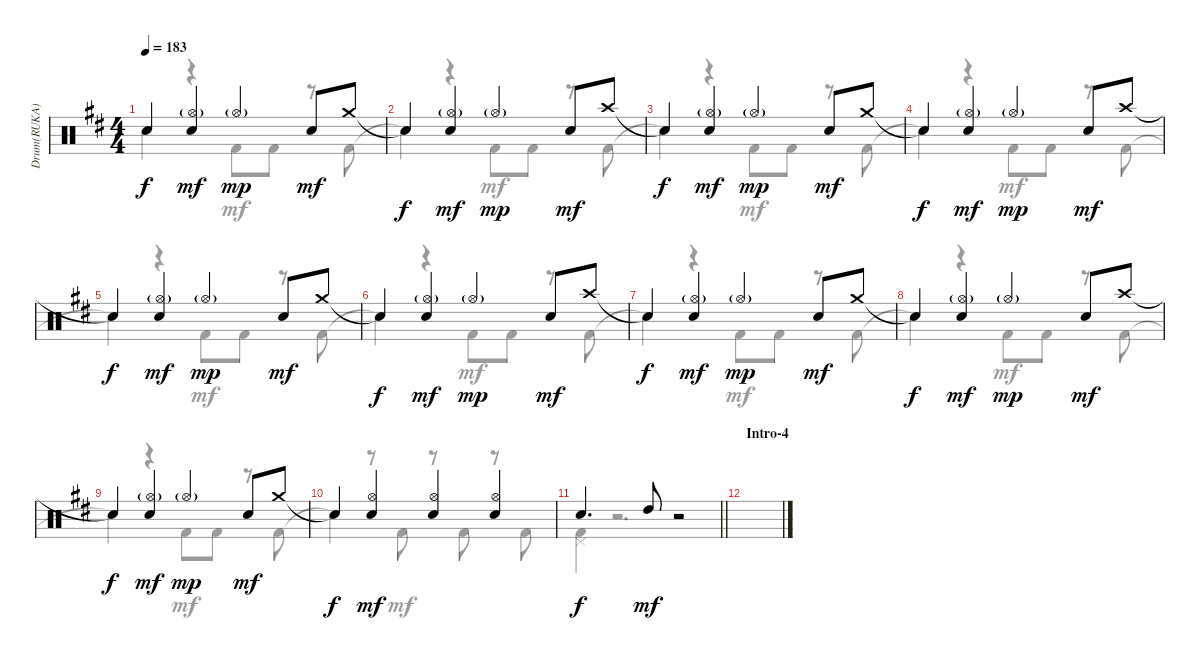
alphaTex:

\track ("Drum(RUKA)" "Drum(RUKA)") {instrument percussion}
\staff {score}
\articulation defaults
\voice
\ts (4 4)
\tempo 183
\clef neutral
\ks d "Snare (hit)"{t}.4{dy f}
("Hi-Hat (open)"{g} "Snare (hit) 2").4{dy mf} "Hi-Hat (open)"{g}.4{dy mp} "Snare (hit) 2".8{dy mf} "Crash medium (hit)".8 |
"Snare (hit)"{t}.4{dy f} ("Hi-Hat (open)"{g} "Snare (hit) 2").4{dy mf} "Hi-Hat (open)"{g}.4{dy mp} "Snare (hit) 2".8{dy mf} "Crash high (hit)".8 |
"Snare (hit)"{t}.4{dy f} ("Hi-Hat (open)"{g} "Snare (hit) 2").4{dy mf} "Hi-Hat (open)"{g}.4{dy mp} "Snare (hit) 2".8{dy mf} "Crash medium (hit)".8 |
"Snare (hit)"{t}.4{dy f} ("Hi-Hat (open)"{g} "Snare (hit) 2").4{dy mf} "Hi-Hat (open)"{g}.4{dy mp} "Snare (hit) 2".8{dy mf} "Crash high (hit)".8 |
"Snare (hit)"{t}.4{dy f} ("Hi-Hat (open)"{g} "Snare (hit) 2").4{dy mf} "Hi-Hat (open)"{g}.4{dy mp} "Snare (hit) 2".8{dy mf} "Crash medium (hit)".8 |
"Snare (hit)"{t}.4{dy f} ("Hi-Hat (open)"{g} "Snare (hit) 2").4{dy mf} "Hi-Hat (open)"{g}.4{dy mp} "Snare (hit) 2".8{dy mf} "Crash high (hit)".8 |
"Snare (hit)"{t}.4{dy f} ("Hi-Hat (open)"{g} "Snare (hit) 2").4{dy mf} "Hi-Hat (open)"{g}.4{dy mp} "Snare (hit) 2".8{dy mf} "Crash medium (hit)".8 |
"Snare (hit)"{t}.4{dy f} ("Hi-Hat (open)"{g} "Snare (hit) 2").4{dy mf} "Hi-Hat (open)"{g}.4{dy mp} "Snare (hit) 2".8{dy mf} "Crash high (hit)".8 |
"Snare (hit)"{t}.4{dy f} ("Hi-Hat (open)"{g} "Snare (hit) 2").4{dy mf} "Hi-Hat (open)"{g}.4{dy mp} "Snare (hit) 2".8{dy mf} "Crash medium (hit)".8 |
"Snare (hit)"{t}.4{dy f} ("Hi-Hat (open)" "Snare (hit) 2").4{dy mf} ("Hi-Hat (open)" "Snare (hit) 2").4 ("Hi-Hat (open)" "Snare (hit) 2").4 |
\barLineRight lightlight "Snare (hit) 2".4{d dy f} "High Tom (hit)".8{dy mf balance 0}
r.2 |
\section ("" "Intro-4")
|
|
|
|
\voice
\clef neutral
\ottava regular
\simile none
\ks d "Snare (hit)"{t}.4{dy f}
r.4 "Kick (hit) 2".8{dy mf} "Kick (hit) 2".8 r.8 "Kick (hit) 2".8 |
"Snare (hit)"{t}.4{dy f} r.4 "Kick (hit) 2".8{dy mf} "Kick (hit) 2".8 r.8 "Kick (hit) 2".8 |
"Snare (hit)"{t}.4{dy f} r.4 "Kick (hit) 2".8{dy mf} "Kick (hit) 2".8 r.8 "Kick (hit) 2".8 |
"Snare (hit)"{t}.4{dy f} r.4 "Kick (hit) 2".8{dy mf} "Kick (hit) 2".8 r.8 "Kick (hit) 2".8 |
"Snare (hit)"{t}.4{dy f} r.4 "Kick (hit) 2".8{dy mf} "Kick (hit) 2".8 r.8 "Kick (hit) 2".8 |
"Snare (hit)"{t}.4{dy f} r.4 "Kick (hit) 2".8{dy mf} "Kick (hit) 2".8 r.8 "Kick (hit) 2".8 |
"Snare (hit)"{t}.4{dy f} r.4 "Kick (hit) 2".8{dy mf} "Kick (hit) 2".8 r.8 "Kick (hit) 2".8 |
"Snare (hit)"{t}.4{dy f} r.4 "Kick (hit) 2".8{dy mf} "Kick (hit) 2".8 r.8 "Kick (hit) 2".8 |
"Snare (hit)"{t}.4{dy f} r.4 "Kick (hit) 2".8{dy mf} "Kick (hit) 2".8 r.8 "Kick (hit) 2".8 |
"Snare (hit)"{t}.4{dy f} r.8 "Kick (hit) 2".8{dy mf} r.8 "Kick (hit) 2".8 r.8 "Kick (hit) 2".8 |
\barLineRight lightlight
("Pedal Hi-Hat (hit)" "Kick (hit) 2").4 r.2{d} |
|
|
|
|
